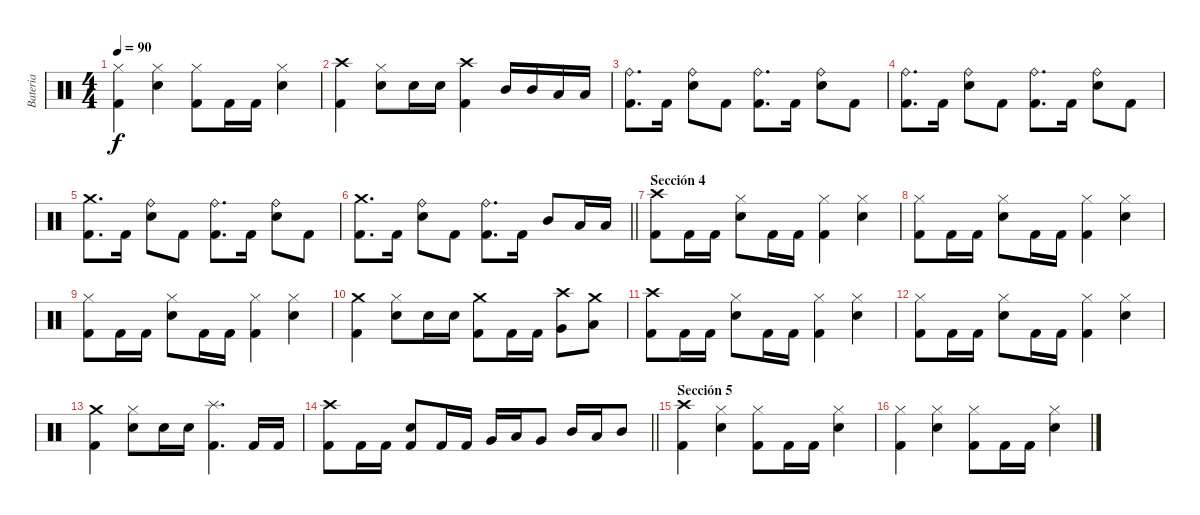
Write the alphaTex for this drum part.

\track ("Bateria" "Bateria") {instrument percussion}
\staff {score}
\articulation defaults
\ts (4 4)
\tempo 90
\clef neutral
\ks c
("Hi-Hat (closed)" "Kick (hit) 2").4{dy f} ("Hi-Hat (closed)" "Snare (hit) 2").4 ("Hi-Hat (closed)" "Kick (hit) 2").8 "Kick (hit) 2".16 "Kick (hit) 2".16 ("Hi-Hat (closed)" "Snare (hit) 2").4 |
("Crash high (hit)" "Kick (hit) 2").4 ("Hi-Hat (closed)" "Snare (hit) 2").8 "Snare (hit) 2".16 "Snare (hit) 2".16 ("Crash high (hit)" "Kick (hit) 2").4 "Mid Tom (hit)".16 "Mid Tom (hit)".16 "Low Tom (hit)".16 "Low Tom (hit)".16 |
("Ride (bell)" "Kick (hit) 2").8{d} "Kick (hit) 2".16 ("Ride (bell)" "Snare (hit) 2").8 "Kick (hit) 2".8 ("Ride (bell)" "Kick (hit) 2").8{d} "Kick (hit) 2".16 ("Ride (bell)" "Snare (hit) 2").8 "Kick (hit) 2".8 |
("Ride (bell)" "Kick (hit) 2").8{d} "Kick (hit) 2".16 ("Ride (bell)" "Snare (hit) 2").8 "Kick (hit) 2".8 ("Ride (bell)" "Kick (hit) 2").8{d} "Kick (hit) 2".16 ("Ride (bell)" "Snare (hit) 2").8 "Kick (hit) 2".8 |
("Crash medium (hit)" "Kick (hit) 2").8{d} "Kick (hit) 2".16 ("Ride (bell)" "Snare (hit) 2").8 "Kick (hit) 2".8 ("Ride (bell)" "Kick (hit) 2").8{d} "Kick (hit) 2".16 ("Ride (bell)" "Snare (hit) 2").8 "Kick (hit) 2".8 |
\barLineRight lightlight
("Crash medium (hit)" "Kick (hit) 2").8{d} "Kick (hit) 2".16 ("Ride (bell)" "Snare (hit) 2").8 "Kick (hit) 2".8 ("Ride (bell)" "Kick (hit) 2").8{d} "Kick (hit) 2".16 "Mid Tom (hit)".8 "Low Tom (hit)".16 "Low Tom (hit)".16 |
\section ("" "Sección 4")
("Crash high (hit)" "Kick (hit) 2").8 "Kick (hit) 2".16 "Kick (hit) 2".16 ("Hi-Hat (closed)" "Snare (hit) 2").8 "Kick (hit) 2".16 "Kick (hit) 2".16 ("Hi-Hat (closed)" "Kick (hit) 2").4 ("Hi-Hat (closed)" "Snare (hit) 2").4 |
("Hi-Hat (closed)" "Kick (hit) 2").8 "Kick (hit) 2".16 "Kick (hit) 2".16 ("Hi-Hat (closed)" "Snare (hit) 2").8 "Kick (hit) 2".16 "Kick (hit) 2".16 ("Hi-Hat (closed)" "Kick (hit) 2").4 ("Hi-Hat (closed)" "Snare (hit) 2").4 |
("Hi-Hat (closed)" "Kick (hit) 2").8 "Kick (hit) 2".16 "Kick (hit) 2".16 ("Hi-Hat (closed)" "Snare (hit) 2").8 "Kick (hit) 2".16 "Kick (hit) 2".16 ("Hi-Hat (closed)" "Kick (hit) 2").4 ("Hi-Hat (closed)" "Snare (hit) 2").4 |
("Crash medium (hit)" "Kick (hit) 2").4 ("Hi-Hat (closed)" "Snare (hit) 2").8 "Snare (hit) 2".16 "Snare (hit) 2".16 ("Crash medium (hit)" "Kick (hit) 2").8 "Kick (hit) 2".16 "Kick (hit) 2".16 ("Crash high (hit)" "Very Low Tom (hit)").8 ("Crash medium (hit)" "Low Floor Tom (hit)").8 |
("Crash high (hit)" "Kick (hit) 2").8 "Kick (hit) 2".16 "Kick (hit) 2".16 ("Hi-Hat (closed)" "Snare (hit) 2").8 "Kick (hit) 2".16 "Kick (hit) 2".16 ("Hi-Hat (closed)" "Kick (hit) 2").4 ("Hi-Hat (closed)" "Snare (hit) 2").4 |
("Hi-Hat (closed)" "Kick (hit) 2").8 "Kick (hit) 2".16 "Kick (hit) 2".16 ("Hi-Hat (closed)" "Snare (hit) 2").8 "Kick (hit) 2".16 "Kick (hit) 2".16 ("Hi-Hat (closed)" "Kick (hit) 2").4 ("Hi-Hat (closed)" "Snare (hit) 2").4 |
("Crash medium (hit)" "Kick (hit) 2").4 ("Hi-Hat (closed)" "Snare (hit) 2").8 "Snare (hit) 2".16 "Snare (hit) 2".16 ("Splash (hit)" "Kick (hit) 2").4{d} "Kick (hit) 2".16 "Kick (hit) 2".16 |
\barLineRight lightlight
("Crash high (hit)" "Kick (hit) 2").8 "Kick (hit) 2".16 "Kick (hit) 2".16 ("Snare (hit) 2" "Kick (hit) 2").8 "Kick (hit) 2".16 "Kick (hit) 2".16 "Very Low Tom (hit)".16 "Low Floor Tom (hit)".16 "Very Low Tom (hit)".8 "Mid Tom (hit)".16 "Low Tom (hit)".16 "Mid Tom (hit)".8 |
\section ("" "Sección 5")
("Crash high (hit)" "Kick (hit) 2").4 ("Hi-Hat (closed)" "Snare (hit) 2").4 ("Hi-Hat (closed)" "Kick (hit) 2").8 "Kick (hit) 2".16 "Kick (hit) 2".16 ("Hi-Hat (closed)" "Snare (hit) 2").4 |
("Hi-Hat (closed)" "Kick (hit) 2").4 ("Hi-Hat (closed)" "Snare (hit) 2").4 ("Hi-Hat (closed)" "Kick (hit) 2").8 "Kick (hit) 2".16 "Kick (hit) 2".16 ("Hi-Hat (closed)" "Snare (hit) 2").4
